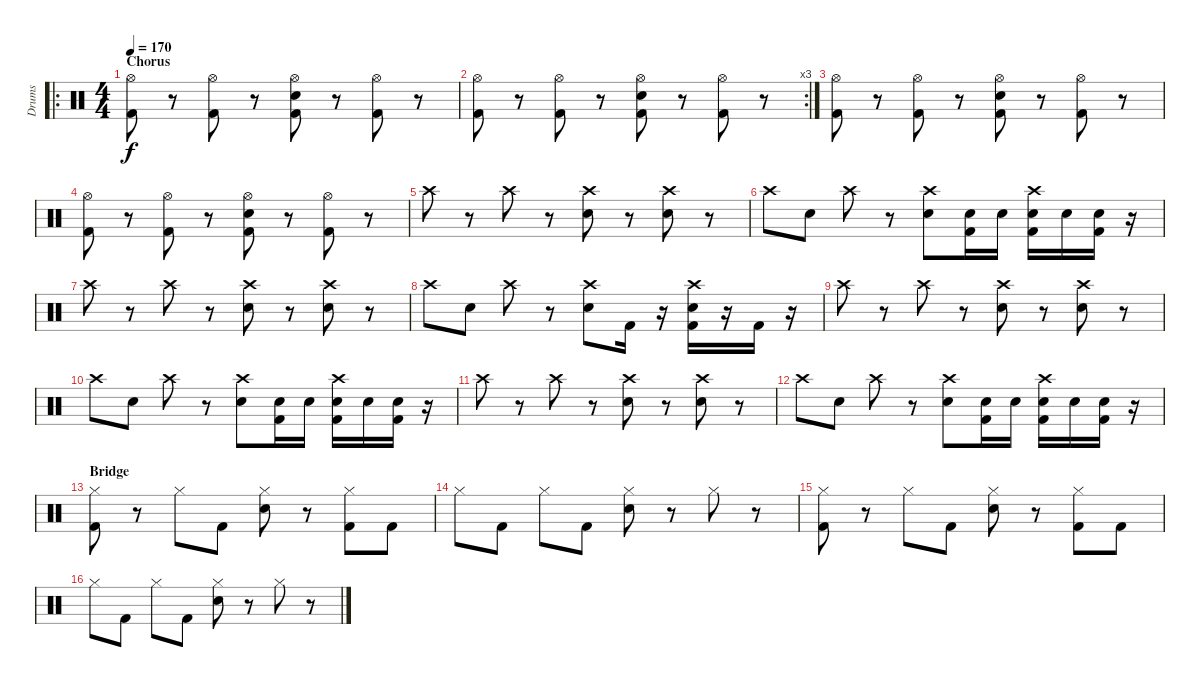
\track ("Drums" "Drums") {instrument percussion}
\staff {score}
\articulation defaults
\ro
\ts (4 4)
\section ("" "Chorus")
\tempo 170
\clef neutral
\ks c
("Hi-Hat (open)" "Kick (hit) 2").8{dy f} r.8 ("Hi-Hat (open)" "Kick (hit) 2").8 r.8 ("Hi-Hat (open)" "Snare (hit) 2" "Kick (hit) 2").8 r.8 ("Hi-Hat (open)" "Kick (hit) 2").8 r.8 |
\rc 3
("Hi-Hat (open)" "Kick (hit) 2").8 r.8 ("Hi-Hat (open)" "Kick (hit) 2").8 r.8 ("Hi-Hat (open)" "Snare (hit) 2" "Kick (hit) 2").8 r.8 ("Hi-Hat (open)" "Kick (hit) 2").8 r.8 |
("Hi-Hat (open)" "Kick (hit) 2").8 r.8 ("Hi-Hat (open)" "Kick (hit) 2").8 r.8 ("Hi-Hat (open)" "Snare (hit) 2" "Kick (hit) 2").8 r.8 ("Hi-Hat (open)" "Kick (hit) 2").8 r.8 |
("Hi-Hat (open)" "Kick (hit) 2").8 r.8 ("Hi-Hat (open)" "Kick (hit) 2").8 r.8 ("Hi-Hat (open)" "Snare (hit) 2" "Kick (hit) 2").8 r.8 ("Hi-Hat (open)" "Kick (hit) 2").8 r.8 |
"Crash high (hit)".8 r.8 "Crash high (hit)".8 r.8 ("Crash high (hit)" "Snare (hit) 2").8 r.8 ("Crash high (hit)" "Snare (hit) 2").8 r.8 |
"Crash high (hit)".8 "Snare (hit) 2".8 "Crash high (hit)".8 r.8 ("Crash high (hit)" "Snare (hit) 2").8 ("Snare (hit) 2" "Kick (hit) 2").16 "Snare (hit) 2".16 ("Crash high (hit)" "Snare (hit) 2" "Kick (hit) 2").16 "Snare (hit) 2".16 ("Snare (hit) 2" "Kick (hit) 2").16 r.16 |
"Crash high (hit)".8 r.8 "Crash high (hit)".8 r.8 ("Crash high (hit)" "Snare (hit) 2").8 r.8 ("Crash high (hit)" "Snare (hit) 2").8 r.8 |
"Crash high (hit)".8 "Snare (hit) 2".8 "Crash high (hit)".8 r.8 ("Crash high (hit)" "Snare (hit) 2").8 "Kick (hit) 2".16 r.16 ("Crash high (hit)" "Snare (hit) 2" "Kick (hit) 2").16 r.16 "Kick (hit) 2".16 r.16 |
"Crash high (hit)".8 r.8 "Crash high (hit)".8 r.8 ("Crash high (hit)" "Snare (hit) 2").8 r.8 ("Crash high (hit)" "Snare (hit) 2").8 r.8 |
"Crash high (hit)".8 "Snare (hit) 2".8 "Crash high (hit)".8 r.8 ("Crash high (hit)" "Snare (hit) 2").8 ("Snare (hit) 2" "Kick (hit) 2").16 "Snare (hit) 2".16 ("Crash high (hit)" "Snare (hit) 2" "Kick (hit) 2").16 "Snare (hit) 2".16 ("Snare (hit) 2" "Kick (hit) 2").16 r.16 |
"Crash high (hit)".8 r.8 "Crash high (hit)".8 r.8 ("Crash high (hit)" "Snare (hit) 2").8 r.8 ("Crash high (hit)" "Snare (hit) 2").8 r.8 |
"Crash high (hit)".8 "Snare (hit) 2".8 "Crash high (hit)".8 r.8 ("Crash high (hit)" "Snare (hit) 2").8 ("Snare (hit) 2" "Kick (hit) 2").16 "Snare (hit) 2".16 ("Crash high (hit)" "Snare (hit) 2" "Kick (hit) 2").16 "Snare (hit) 2".16 ("Snare (hit) 2" "Kick (hit) 2").16 r.16 |
\section ("" "Bridge")
("Hi-Hat (closed)" "Kick (hit) 2").8 r.8 "Hi-Hat (closed)".8 "Kick (hit) 2".8 ("Hi-Hat (closed)" "Snare (hit) 2").8 r.8 ("Hi-Hat (closed)" "Kick (hit) 2").8 "Kick (hit) 2".8 |
"Hi-Hat (closed)".8 "Kick (hit) 2".8 "Hi-Hat (closed)".8 "Kick (hit) 2".8 ("Hi-Hat (closed)" "Snare (hit) 2").8 r.8 "Hi-Hat (closed)".8 r.8 |
("Hi-Hat (closed)" "Kick (hit) 2").8 r.8 "Hi-Hat (closed)".8 "Kick (hit) 2".8 ("Hi-Hat (closed)" "Snare (hit) 2").8 r.8 ("Hi-Hat (closed)" "Kick (hit) 2").8 "Kick (hit) 2".8 |
"Hi-Hat (closed)".8 "Kick (hit) 2".8 "Hi-Hat (closed)".8 "Kick (hit) 2".8 ("Hi-Hat (closed)" "Snare (hit) 2").8 r.8 "Hi-Hat (closed)".8 r.8
